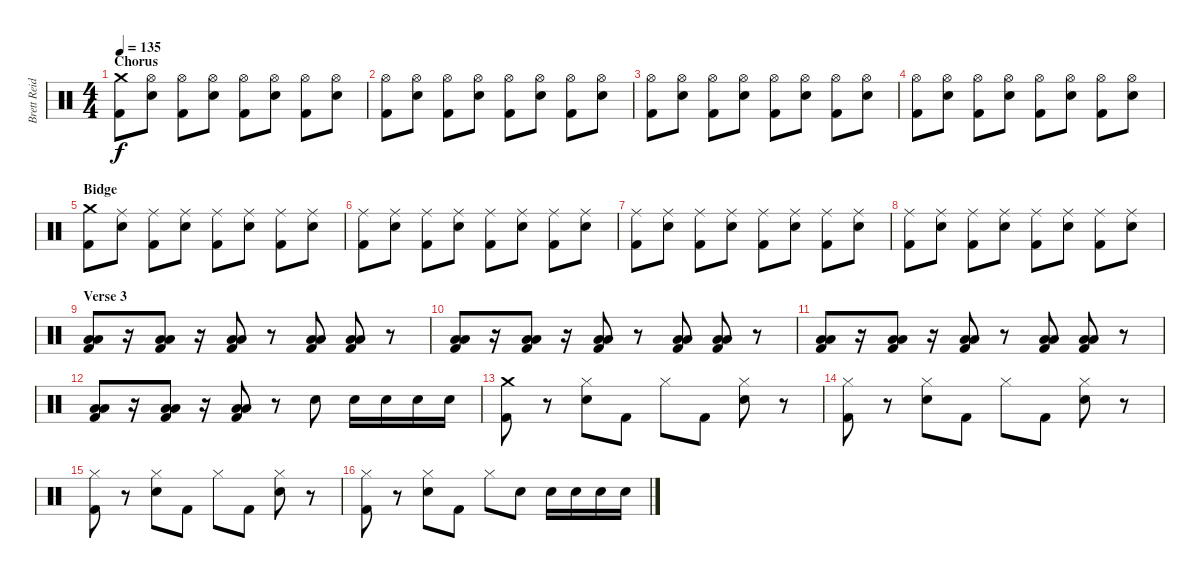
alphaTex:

\track ("Brett Reid" "Brett Reid") {instrument percussion}
\staff {score}
\articulation defaults
\ts (4 4)
\section ("" "Chorus")
\tempo 135
\clef neutral
\ks c
("Crash medium (hit)" "Kick (hit) 2").8{dy f} ("Hi-Hat (open)" "Electric Snare (hit)").8 ("Hi-Hat (open)" "Kick (hit) 2").8 ("Hi-Hat (open)" "Electric Snare (hit)").8 ("Hi-Hat (open)" "Kick (hit) 2").8 ("Hi-Hat (open)" "Electric Snare (hit)").8 ("Hi-Hat (open)" "Kick (hit) 2").8 ("Hi-Hat (open)" "Electric Snare (hit)").8 |
("Hi-Hat (open)" "Kick (hit) 2").8 ("Hi-Hat (open)" "Electric Snare (hit)").8 ("Hi-Hat (open)" "Kick (hit) 2").8 ("Hi-Hat (open)" "Electric Snare (hit)").8 ("Hi-Hat (open)" "Kick (hit) 2").8 ("Hi-Hat (open)" "Electric Snare (hit)").8 ("Hi-Hat (open)" "Kick (hit) 2").8 ("Hi-Hat (open)" "Electric Snare (hit)").8 |
("Hi-Hat (open)" "Kick (hit) 2").8 ("Hi-Hat (open)" "Electric Snare (hit)").8 ("Hi-Hat (open)" "Kick (hit) 2").8 ("Hi-Hat (open)" "Electric Snare (hit)").8 ("Hi-Hat (open)" "Kick (hit) 2").8 ("Hi-Hat (open)" "Electric Snare (hit)").8 ("Hi-Hat (open)" "Kick (hit) 2").8 ("Hi-Hat (open)" "Electric Snare (hit)").8 |
("Hi-Hat (open)" "Kick (hit) 2").8 ("Hi-Hat (open)" "Electric Snare (hit)").8 ("Hi-Hat (open)" "Kick (hit) 2").8 ("Hi-Hat (open)" "Electric Snare (hit)").8 ("Hi-Hat (open)" "Kick (hit) 2").8 ("Hi-Hat (open)" "Electric Snare (hit)").8 ("Hi-Hat (open)" "Kick (hit) 2").8 ("Hi-Hat (open)" "Electric Snare (hit)").8 |
\section ("" "Bidge")
("Crash medium (hit)" "Kick (hit) 2").8 ("Ride (middle)" "Electric Snare (hit)").8 ("Ride (middle)" "Kick (hit) 2").8 ("Ride (middle)" "Electric Snare (hit)").8 ("Ride (middle)" "Kick (hit) 2").8 ("Ride (middle)" "Electric Snare (hit)").8 ("Ride (middle)" "Kick (hit) 2").8 ("Ride (middle)" "Electric Snare (hit)").8 |
("Ride (middle)" "Kick (hit) 2").8 ("Ride (middle)" "Electric Snare (hit)").8 ("Ride (middle)" "Kick (hit) 2").8 ("Ride (middle)" "Electric Snare (hit)").8 ("Ride (middle)" "Kick (hit) 2").8 ("Ride (middle)" "Electric Snare (hit)").8 ("Ride (middle)" "Kick (hit) 2").8 ("Ride (middle)" "Electric Snare (hit)").8 |
("Ride (middle)" "Kick (hit) 2").8 ("Ride (middle)" "Electric Snare (hit)").8 ("Ride (middle)" "Kick (hit) 2").8 ("Ride (middle)" "Electric Snare (hit)").8 ("Ride (middle)" "Kick (hit) 2").8 ("Ride (middle)" "Electric Snare (hit)").8 ("Ride (middle)" "Kick (hit) 2").8 ("Ride (middle)" "Electric Snare (hit)").8 |
("Ride (middle)" "Kick (hit) 2").8 ("Ride (middle)" "Electric Snare (hit)").8 ("Ride (middle)" "Kick (hit) 2").8 ("Ride (middle)" "Electric Snare (hit)").8 ("Ride (middle)" "Kick (hit) 2").8 ("Ride (middle)" "Electric Snare (hit)").8 ("Ride (middle)" "Kick (hit) 2").8 ("Ride (middle)" "Electric Snare (hit)").8 |
\section ("" "Verse 3")
("Low Tom (hit)" "Low Floor Tom (hit)" "Kick (hit) 2").8 r.16 ("Low Tom (hit)" "Low Floor Tom (hit)" "Kick (hit) 2").8 r.16 ("Low Tom (hit)" "Low Floor Tom (hit)" "Kick (hit) 2").8 r.8 ("Low Tom (hit)" "Low Floor Tom (hit)" "Kick (hit) 2").8 ("Low Tom (hit)" "Low Floor Tom (hit)" "Kick (hit) 2").8 r.8 |
("Low Tom (hit)" "Low Floor Tom (hit)" "Kick (hit) 2").8 r.16 ("Low Tom (hit)" "Low Floor Tom (hit)" "Kick (hit) 2").8 r.16 ("Low Tom (hit)" "Low Floor Tom (hit)" "Kick (hit) 2").8 r.8 ("Low Tom (hit)" "Low Floor Tom (hit)" "Kick (hit) 2").8 ("Low Tom (hit)" "Low Floor Tom (hit)" "Kick (hit) 2").8 r.8 |
("Low Tom (hit)" "Low Floor Tom (hit)" "Kick (hit) 2").8 r.16 ("Low Tom (hit)" "Low Floor Tom (hit)" "Kick (hit) 2").8 r.16 ("Low Tom (hit)" "Low Floor Tom (hit)" "Kick (hit) 2").8 r.8 ("Low Tom (hit)" "Low Floor Tom (hit)" "Kick (hit) 2").8 ("Low Tom (hit)" "Low Floor Tom (hit)" "Kick (hit) 2").8 r.8 |
("Low Tom (hit)" "Low Floor Tom (hit)" "Kick (hit) 2").8 r.16 ("Low Tom (hit)" "Low Floor Tom (hit)" "Kick (hit) 2").8 r.16 ("Low Tom (hit)" "Low Floor Tom (hit)" "Kick (hit) 2").8 r.8 "Electric Snare (hit)".8 "Electric Snare (hit)".16 "Electric Snare (hit)".16 "Electric Snare (hit)".16 "Electric Snare (hit)".16 |
("Crash medium (hit)" "Kick (hit) 2").8 r.8 ("Hi-Hat (closed)" "Electric Snare (hit)").8 "Kick (hit) 2".8 "Hi-Hat (closed)".8 "Kick (hit) 2".8 ("Hi-Hat (closed)" "Electric Snare (hit)").8 r.8 |
("Hi-Hat (closed)" "Kick (hit) 2").8 r.8 ("Hi-Hat (closed)" "Electric Snare (hit)").8 "Kick (hit) 2".8 "Hi-Hat (closed)".8 "Kick (hit) 2".8 ("Hi-Hat (closed)" "Electric Snare (hit)").8 r.8 |
("Hi-Hat (closed)" "Kick (hit) 2").8 r.8 ("Hi-Hat (closed)" "Electric Snare (hit)").8 "Kick (hit) 2".8 "Hi-Hat (closed)".8 "Kick (hit) 2".8 ("Hi-Hat (closed)" "Electric Snare (hit)").8 r.8 |
("Hi-Hat (closed)" "Kick (hit) 2").8 r.8 ("Hi-Hat (closed)" "Electric Snare (hit)").8 "Kick (hit) 2".8 "Hi-Hat (closed)".8 "Electric Snare (hit)".8 "Electric Snare (hit)".16 "Electric Snare (hit)".16 "Electric Snare (hit)".16 "Electric Snare (hit)".16
